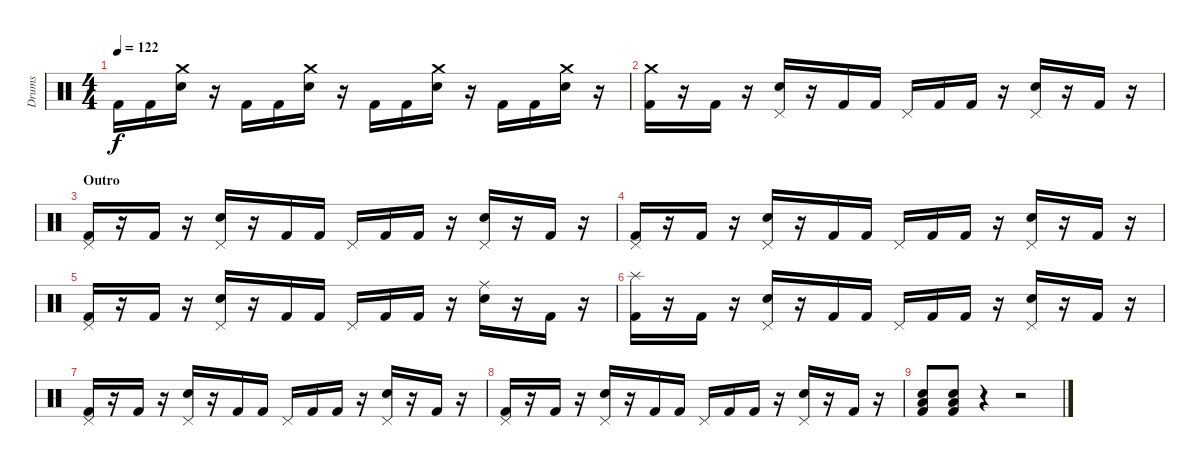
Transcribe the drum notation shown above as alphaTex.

\track ("Drums" "Drums") {instrument percussion}
\staff {score}
\articulation defaults
\ts (4 4)
\tempo 122
\clef neutral
\ks c "Kick (hit) 2".16{dy f} "Kick (hit) 2".16
("Crash medium (hit)" "Snare (hit) 2").16 r.16 "Kick (hit) 2".16 "Kick (hit) 2".16 ("Crash medium (hit)" "Snare (hit) 2").16 r.16 "Kick (hit) 2".16 "Kick (hit) 2".16 ("Crash medium (hit)" "Snare (hit) 2").16 r.16 "Kick (hit) 2".16 "Kick (hit) 2".16 ("Crash medium (hit)" "Snare (hit) 2").16 r.16 |
("Crash medium (hit)" "Kick (hit) 2").16 r.16 "Kick (hit) 2".16 r.16 ("Pedal Hi-Hat (hit)" "Snare (hit) 2").16 r.16 "Kick (hit) 2".16 "Kick (hit) 2".16 "Pedal Hi-Hat (hit)".16 "Kick (hit) 2".16 "Kick (hit) 2".16 r.16 ("Pedal Hi-Hat (hit)" "Snare (hit) 2").16 r.16 "Kick (hit) 2".16 r.16 |
\section ("" "Outro")
("Pedal Hi-Hat (hit)" "Kick (hit) 2").16 r.16 "Kick (hit) 2".16 r.16 ("Pedal Hi-Hat (hit)" "Snare (hit) 2").16 r.16 "Kick (hit) 2".16 "Kick (hit) 2".16 "Pedal Hi-Hat (hit)".16 "Kick (hit) 2".16 "Kick (hit) 2".16 r.16 ("Pedal Hi-Hat (hit)" "Snare (hit) 2").16 r.16 "Kick (hit) 2".16 r.16 |
("Pedal Hi-Hat (hit)" "Kick (hit) 2").16 r.16 "Kick (hit) 2".16 r.16 ("Pedal Hi-Hat (hit)" "Snare (hit) 2").16 r.16 "Kick (hit) 2".16 "Kick (hit) 2".16 "Pedal Hi-Hat (hit)".16 "Kick (hit) 2".16 "Kick (hit) 2".16 r.16 ("Pedal Hi-Hat (hit)" "Snare (hit) 2").16 r.16 "Kick (hit) 2".16 r.16 |
("Pedal Hi-Hat (hit)" "Kick (hit) 2").16 r.16 "Kick (hit) 2".16 r.16 ("Pedal Hi-Hat (hit)" "Snare (hit) 2").16 r.16 "Kick (hit) 2".16 "Kick (hit) 2".16 "Pedal Hi-Hat (hit)".16 "Kick (hit) 2".16 "Kick (hit) 2".16 r.16 ("Ride (middle)" "Snare (hit) 2").16 r.16 "Kick (hit) 2".16 r.16 |
("Splash (hit)" "Kick (hit) 2").16 r.16 "Kick (hit) 2".16 r.16 ("Pedal Hi-Hat (hit)" "Snare (hit) 2").16 r.16 "Kick (hit) 2".16 "Kick (hit) 2".16 "Pedal Hi-Hat (hit)".16 "Kick (hit) 2".16 "Kick (hit) 2".16 r.16 ("Pedal Hi-Hat (hit)" "Snare (hit) 2").16 r.16 "Kick (hit) 2".16 r.16 |
("Pedal Hi-Hat (hit)" "Kick (hit) 2").16 r.16 "Kick (hit) 2".16 r.16 ("Pedal Hi-Hat (hit)" "Snare (hit) 2").16 r.16 "Kick (hit) 2".16 "Kick (hit) 2".16 "Pedal Hi-Hat (hit)".16 "Kick (hit) 2".16 "Kick (hit) 2".16 r.16 ("Pedal Hi-Hat (hit)" "Snare (hit) 2").16 r.16 "Kick (hit) 2".16 r.16 |
("Pedal Hi-Hat (hit)" "Kick (hit) 2").16 r.16 "Kick (hit) 2".16 r.16 ("Pedal Hi-Hat (hit)" "Snare (hit) 2").16 r.16 "Kick (hit) 2".16 "Kick (hit) 2".16 "Pedal Hi-Hat (hit)".16 "Kick (hit) 2".16 "Kick (hit) 2".16 r.16 ("Pedal Hi-Hat (hit)" "Snare (hit) 2").16 r.16 "Kick (hit) 2".16 r.16 |
("Snare (hit) 2" "Low Floor Tom (hit)" "Kick (hit) 2").8 ("Snare (hit) 2" "Low Floor Tom (hit)" "Kick (hit) 2").8 r.4 r.2
